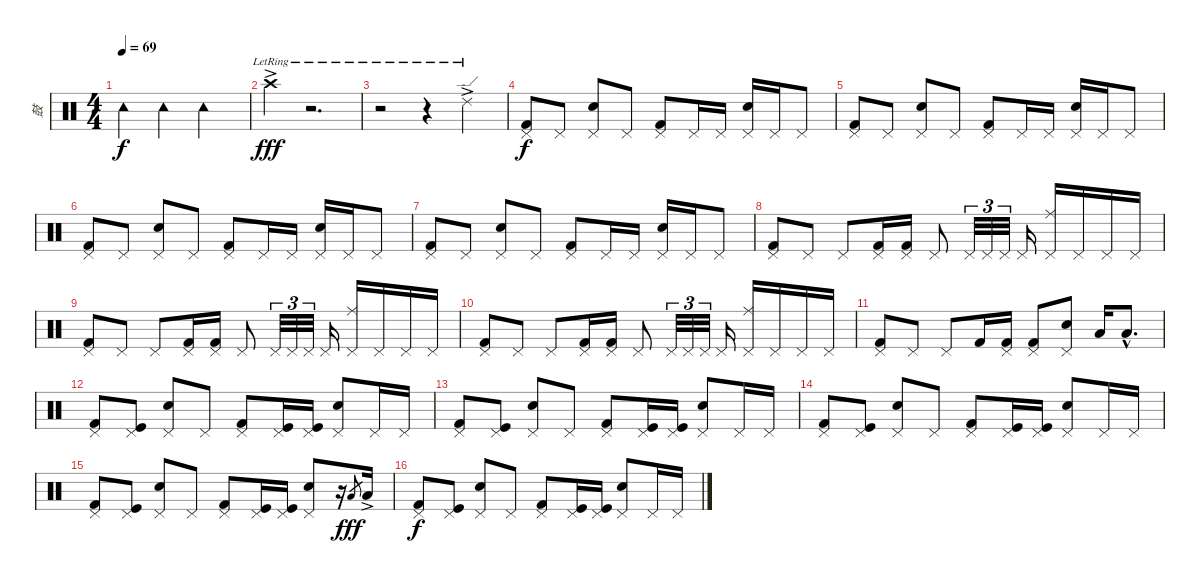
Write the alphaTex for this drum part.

\track ("鼓" "鼓") {instrument percussion}
\staff {score}
\articulation defaults
\ts (4 4)
\tempo 69
\clef neutral
\ks c "Tambourine (hit)".4{dy f} "Tambourine (hit)".4 "Tambourine (hit)".2
|
"Crash high (hit)"{ac lr}.4{dy fff} r.2{d} |
r.2 r.4 "Ride (edge) 2"{ac lr}.4 |
("Pedal Hi-Hat (hit)" "Kick (hit) 2").8{dy f} "Pedal Hi-Hat (hit)".8 ("Pedal Hi-Hat (hit)" "Electric Snare (hit)").8 "Pedal Hi-Hat (hit)".8 ("Pedal Hi-Hat (hit)" "Kick (hit) 2").8 "Pedal Hi-Hat (hit)".16 "Pedal Hi-Hat (hit)".16 ("Pedal Hi-Hat (hit)" "Electric Snare (hit)").16 "Pedal Hi-Hat (hit)".16 "Pedal Hi-Hat (hit)".8 |
("Pedal Hi-Hat (hit)" "Kick (hit) 2").8 "Pedal Hi-Hat (hit)".8 ("Pedal Hi-Hat (hit)" "Electric Snare (hit)").8 "Pedal Hi-Hat (hit)".8 ("Pedal Hi-Hat (hit)" "Kick (hit) 2").8 "Pedal Hi-Hat (hit)".16 "Pedal Hi-Hat (hit)".16 ("Pedal Hi-Hat (hit)" "Electric Snare (hit)").16 "Pedal Hi-Hat (hit)".16 "Pedal Hi-Hat (hit)".8 |
("Pedal Hi-Hat (hit)" "Kick (hit) 2").8 "Pedal Hi-Hat (hit)".8 ("Pedal Hi-Hat (hit)" "Electric Snare (hit)").8 "Pedal Hi-Hat (hit)".8 ("Pedal Hi-Hat (hit)" "Kick (hit) 2").8 "Pedal Hi-Hat (hit)".16 "Pedal Hi-Hat (hit)".16 ("Pedal Hi-Hat (hit)" "Electric Snare (hit)").16 "Pedal Hi-Hat (hit)".16 "Pedal Hi-Hat (hit)".8 |
("Pedal Hi-Hat (hit)" "Kick (hit) 2").8 "Pedal Hi-Hat (hit)".8 ("Pedal Hi-Hat (hit)" "Electric Snare (hit)").8 "Pedal Hi-Hat (hit)".8 ("Pedal Hi-Hat (hit)" "Kick (hit) 2").8 "Pedal Hi-Hat (hit)".16 "Pedal Hi-Hat (hit)".16 ("Pedal Hi-Hat (hit)" "Electric Snare (hit)").16 "Pedal Hi-Hat (hit)".16 "Pedal Hi-Hat (hit)".8 |
("Pedal Hi-Hat (hit)" "Kick (hit) 2").8 "Pedal Hi-Hat (hit)".8 "Pedal Hi-Hat (hit)".8 ("Pedal Hi-Hat (hit)" "Kick (hit) 2").16 ("Pedal Hi-Hat (hit)" "Kick (hit) 2").16 "Pedal Hi-Hat (hit)".8 "Pedal Hi-Hat (hit)".32{tu (3 2)} "Pedal Hi-Hat (hit)".32{tu (3 2)} "Pedal Hi-Hat (hit)".32{tu (3 2)} "Pedal Hi-Hat (hit)".16 ("Pedal Hi-Hat (hit)" "Ride (middle)").16 "Pedal Hi-Hat (hit)".16 "Pedal Hi-Hat (hit)".16 "Pedal Hi-Hat (hit)".16 |
("Pedal Hi-Hat (hit)" "Kick (hit) 2").8 "Pedal Hi-Hat (hit)".8 "Pedal Hi-Hat (hit)".8 ("Pedal Hi-Hat (hit)" "Kick (hit) 2").16 ("Pedal Hi-Hat (hit)" "Kick (hit) 2").16 "Pedal Hi-Hat (hit)".8 "Pedal Hi-Hat (hit)".32{tu (3 2)} "Pedal Hi-Hat (hit)".32{tu (3 2)} "Pedal Hi-Hat (hit)".32{tu (3 2)} "Pedal Hi-Hat (hit)".16 ("Pedal Hi-Hat (hit)" "Ride (middle)").16 "Pedal Hi-Hat (hit)".16 "Pedal Hi-Hat (hit)".16 "Pedal Hi-Hat (hit)".16 |
("Pedal Hi-Hat (hit)" "Kick (hit) 2").8 "Pedal Hi-Hat (hit)".8 "Pedal Hi-Hat (hit)".8 ("Pedal Hi-Hat (hit)" "Kick (hit) 2").16 ("Pedal Hi-Hat (hit)" "Kick (hit) 2").16 "Pedal Hi-Hat (hit)".8 "Pedal Hi-Hat (hit)".32{tu (3 2)} "Pedal Hi-Hat (hit)".32{tu (3 2)} "Pedal Hi-Hat (hit)".32{tu (3 2)} "Pedal Hi-Hat (hit)".16 ("Pedal Hi-Hat (hit)" "Ride (middle)").16 "Pedal Hi-Hat (hit)".16 "Pedal Hi-Hat (hit)".16 "Pedal Hi-Hat (hit)".16 |
("Pedal Hi-Hat (hit)" "Kick (hit) 2").8 "Pedal Hi-Hat (hit)".8 "Pedal Hi-Hat (hit)".8 "Kick (hit) 2".16 ("Pedal Hi-Hat (hit)" "Kick (hit) 2").16 ("Pedal Hi-Hat (hit)" "Kick (hit) 2").8 ("Pedal Hi-Hat (hit)" "Electric Snare (hit)").8 "Low Tom (hit)".16 "Low Tom (hit)"{hac}.8{d} |
("Pedal Hi-Hat (hit)" "Kick (hit) 2").8 ("Pedal Hi-Hat (hit)" "Kick (hit)").8 ("Pedal Hi-Hat (hit)" "Electric Snare (hit)").8 "Pedal Hi-Hat (hit)".8 ("Pedal Hi-Hat (hit)" "Kick (hit) 2").8 ("Pedal Hi-Hat (hit)" "Kick (hit)").16 ("Pedal Hi-Hat (hit)" "Kick (hit)").16 ("Pedal Hi-Hat (hit)" "Electric Snare (hit)").8 "Pedal Hi-Hat (hit)".16 "Pedal Hi-Hat (hit)".16 |
("Pedal Hi-Hat (hit)" "Kick (hit) 2").8 ("Pedal Hi-Hat (hit)" "Kick (hit)").8 ("Pedal Hi-Hat (hit)" "Electric Snare (hit)").8 "Pedal Hi-Hat (hit)".8 ("Pedal Hi-Hat (hit)" "Kick (hit) 2").8 ("Pedal Hi-Hat (hit)" "Kick (hit)").16 ("Pedal Hi-Hat (hit)" "Kick (hit)").16 ("Pedal Hi-Hat (hit)" "Electric Snare (hit)").8 "Pedal Hi-Hat (hit)".16 "Pedal Hi-Hat (hit)".16 |
("Pedal Hi-Hat (hit)" "Kick (hit) 2").8 ("Pedal Hi-Hat (hit)" "Kick (hit)").8 ("Pedal Hi-Hat (hit)" "Electric Snare (hit)").8 "Pedal Hi-Hat (hit)".8 ("Pedal Hi-Hat (hit)" "Kick (hit) 2").8 ("Pedal Hi-Hat (hit)" "Kick (hit)").16 ("Pedal Hi-Hat (hit)" "Kick (hit)").16 ("Pedal Hi-Hat (hit)" "Electric Snare (hit)").8 "Pedal Hi-Hat (hit)".16 "Pedal Hi-Hat (hit)".16 |
("Pedal Hi-Hat (hit)" "Kick (hit) 2").8 ("Pedal Hi-Hat (hit)" "Kick (hit)").8 ("Pedal Hi-Hat (hit)" "Electric Snare (hit)").8 "Pedal Hi-Hat (hit)".8 ("Pedal Hi-Hat (hit)" "Kick (hit) 2").8 ("Pedal Hi-Hat (hit)" "Kick (hit)").16 ("Pedal Hi-Hat (hit)" "Kick (hit)").16 ("Pedal Hi-Hat (hit)" "Electric Snare (hit)").8 r.16 "Low Tom (hit)".8{gr dy fff} "Low Tom (hit)"{ac}.16 |
("Pedal Hi-Hat (hit)" "Kick (hit) 2").8{dy f} ("Pedal Hi-Hat (hit)" "Kick (hit)").8 ("Pedal Hi-Hat (hit)" "Electric Snare (hit)").8 "Pedal Hi-Hat (hit)".8 ("Pedal Hi-Hat (hit)" "Kick (hit) 2").8 ("Pedal Hi-Hat (hit)" "Kick (hit)").16 ("Pedal Hi-Hat (hit)" "Kick (hit)").16 ("Pedal Hi-Hat (hit)" "Electric Snare (hit)").8 "Pedal Hi-Hat (hit)".16 "Pedal Hi-Hat (hit)".16
